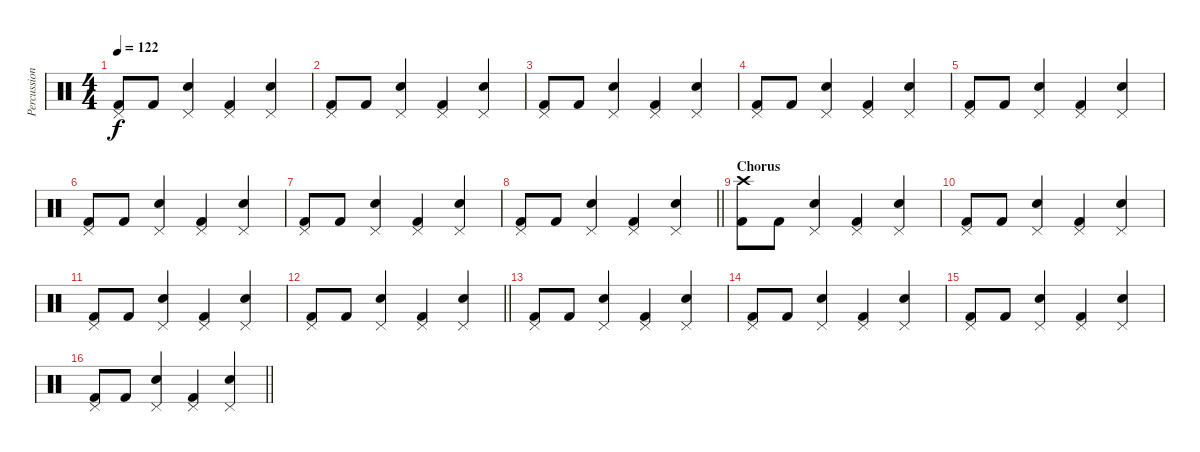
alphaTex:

\track ("Percussion" "Percussion") {instrument percussion}
\staff {score}
\articulation defaults
\ts (4 4)
\tempo 122
\clef neutral
\ks c
("Pedal Hi-Hat (hit)" "Kick (hit) 2").8{dy f} "Kick (hit) 2".8 ("Pedal Hi-Hat (hit)" "Electric Snare (hit)").4 ("Pedal Hi-Hat (hit)" "Kick (hit) 2").4 ("Pedal Hi-Hat (hit)" "Electric Snare (hit)").4 |
("Pedal Hi-Hat (hit)" "Kick (hit) 2").8 "Kick (hit) 2".8 ("Pedal Hi-Hat (hit)" "Electric Snare (hit)").4 ("Pedal Hi-Hat (hit)" "Kick (hit) 2").4 ("Pedal Hi-Hat (hit)" "Electric Snare (hit)").4 |
("Pedal Hi-Hat (hit)" "Kick (hit) 2").8 "Kick (hit) 2".8 ("Pedal Hi-Hat (hit)" "Electric Snare (hit)").4 ("Pedal Hi-Hat (hit)" "Kick (hit) 2").4 ("Pedal Hi-Hat (hit)" "Electric Snare (hit)").4 |
("Pedal Hi-Hat (hit)" "Kick (hit) 2").8 "Kick (hit) 2".8 ("Pedal Hi-Hat (hit)" "Electric Snare (hit)").4 ("Pedal Hi-Hat (hit)" "Kick (hit) 2").4 ("Pedal Hi-Hat (hit)" "Electric Snare (hit)").4 |
("Pedal Hi-Hat (hit)" "Kick (hit) 2").8 "Kick (hit) 2".8 ("Pedal Hi-Hat (hit)" "Electric Snare (hit)").4 ("Pedal Hi-Hat (hit)" "Kick (hit) 2").4 ("Pedal Hi-Hat (hit)" "Electric Snare (hit)").4 |
("Pedal Hi-Hat (hit)" "Kick (hit) 2").8 "Kick (hit) 2".8 ("Pedal Hi-Hat (hit)" "Electric Snare (hit)").4 ("Pedal Hi-Hat (hit)" "Kick (hit) 2").4 ("Pedal Hi-Hat (hit)" "Electric Snare (hit)").4 |
("Pedal Hi-Hat (hit)" "Kick (hit) 2").8 "Kick (hit) 2".8 ("Pedal Hi-Hat (hit)" "Electric Snare (hit)").4 ("Pedal Hi-Hat (hit)" "Kick (hit) 2").4 ("Pedal Hi-Hat (hit)" "Electric Snare (hit)").4 |
\barLineRight lightlight
("Pedal Hi-Hat (hit)" "Kick (hit) 2").8 "Kick (hit) 2".8 ("Pedal Hi-Hat (hit)" "Electric Snare (hit)").4 ("Pedal Hi-Hat (hit)" "Kick (hit) 2").4 ("Pedal Hi-Hat (hit)" "Electric Snare (hit)").4 |
\section ("" "Chorus")
("Crash high (hit)" "Kick (hit) 2").8 "Kick (hit) 2".8 ("Pedal Hi-Hat (hit)" "Electric Snare (hit)").4 ("Pedal Hi-Hat (hit)" "Kick (hit) 2").4 ("Pedal Hi-Hat (hit)" "Electric Snare (hit)").4 |
("Pedal Hi-Hat (hit)" "Kick (hit) 2").8 "Kick (hit) 2".8 ("Pedal Hi-Hat (hit)" "Electric Snare (hit)").4 ("Pedal Hi-Hat (hit)" "Kick (hit) 2").4 ("Pedal Hi-Hat (hit)" "Electric Snare (hit)").4 |
("Pedal Hi-Hat (hit)" "Kick (hit) 2").8 "Kick (hit) 2".8 ("Pedal Hi-Hat (hit)" "Electric Snare (hit)").4 ("Pedal Hi-Hat (hit)" "Kick (hit) 2").4 ("Pedal Hi-Hat (hit)" "Electric Snare (hit)").4 |
\barLineRight lightlight
("Pedal Hi-Hat (hit)" "Kick (hit) 2").8 "Kick (hit) 2".8 ("Pedal Hi-Hat (hit)" "Electric Snare (hit)").4 ("Pedal Hi-Hat (hit)" "Kick (hit) 2").4 ("Pedal Hi-Hat (hit)" "Electric Snare (hit)").4 |
("Pedal Hi-Hat (hit)" "Kick (hit) 2").8 "Kick (hit) 2".8 ("Pedal Hi-Hat (hit)" "Electric Snare (hit)").4 ("Pedal Hi-Hat (hit)" "Kick (hit) 2").4 ("Pedal Hi-Hat (hit)" "Electric Snare (hit)").4 |
("Pedal Hi-Hat (hit)" "Kick (hit) 2").8 "Kick (hit) 2".8 ("Pedal Hi-Hat (hit)" "Electric Snare (hit)").4 ("Pedal Hi-Hat (hit)" "Kick (hit) 2").4 ("Pedal Hi-Hat (hit)" "Electric Snare (hit)").4 |
("Pedal Hi-Hat (hit)" "Kick (hit) 2").8 "Kick (hit) 2".8 ("Pedal Hi-Hat (hit)" "Electric Snare (hit)").4 ("Pedal Hi-Hat (hit)" "Kick (hit) 2").4 ("Pedal Hi-Hat (hit)" "Electric Snare (hit)").4 |
\barLineRight lightlight
("Pedal Hi-Hat (hit)" "Kick (hit) 2").8 "Kick (hit) 2".8 ("Pedal Hi-Hat (hit)" "Electric Snare (hit)").4 ("Pedal Hi-Hat (hit)" "Kick (hit) 2").4 ("Pedal Hi-Hat (hit)" "Electric Snare (hit)").4
